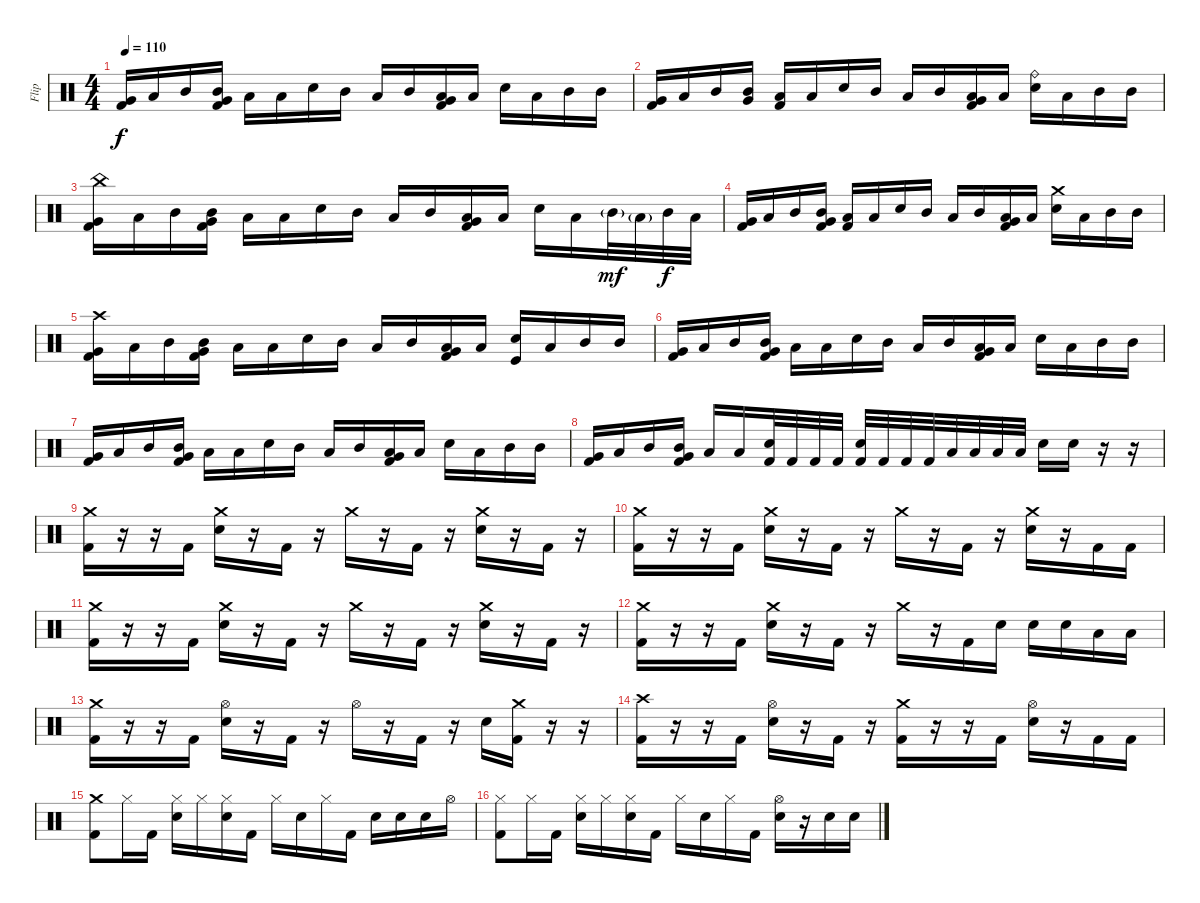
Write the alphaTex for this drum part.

\track ("Flip" "Flip") {instrument percussion}
\staff {score}
\articulation defaults
\ts (4 4)
\tempo 110
\clef neutral
\ks c
("Very Low Tom (hit)" "Kick (hit) 2").16{dy f} "Low Tom (hit)".16 "Mid Tom (hit)".16 ("Very Low Tom (hit)" "Mid Tom (hit)" "Kick (hit) 2").16 "Low Tom (hit)".16 "Low Tom (hit)".16 "Snare (hit) 2".16 "Mid Tom (hit)".16 "Low Tom (hit)".16 "Mid Tom (hit)".16 ("Very Low Tom (hit)" "Low Tom (hit)" "Kick (hit) 2").16 "Low Tom (hit)".16 "Snare (hit) 2".16 "Low Tom (hit)".16 "Mid Tom (hit)".16 "Mid Tom (hit)".16 |
("Very Low Tom (hit)" "Kick (hit) 2").16 "Low Tom (hit)".16 "Mid Tom (hit)".16 ("Very Low Tom (hit)" "Mid Tom (hit)").16 ("Low Tom (hit)" "Kick (hit) 2").16 "Low Tom (hit)".16 "Snare (hit) 2".16 "Mid Tom (hit)".16 "Low Tom (hit)".16 "Mid Tom (hit)".16 ("Very Low Tom (hit)" "Low Tom (hit)" "Kick (hit) 2").16 "Low Tom (hit)".16 ("Ride (bell)" "Snare (hit) 2").16 "Low Tom (hit)".16 "Mid Tom (hit)".16 "Mid Tom (hit)".16 |
("China (hit)" "Very Low Tom (hit)" "Kick (hit) 2").16 "Low Tom (hit)".16 "Mid Tom (hit)".16 ("Very Low Tom (hit)" "Mid Tom (hit)" "Kick (hit) 2").16 "Low Tom (hit)".16 "Low Tom (hit)".16 "Snare (hit) 2".16 "Mid Tom (hit)".16 "Low Tom (hit)".16 "Mid Tom (hit)".16 ("Very Low Tom (hit)" "Low Tom (hit)" "Kick (hit) 2").16 "Low Tom (hit)".16 "Snare (hit) 2".16 "Low Tom (hit)".16 "Mid Tom (hit)"{g}.32{dy mf} "Low Tom (hit)"{g}.32 "Mid Tom (hit)".32{dy f} "Low Tom (hit)".32 |
("Very Low Tom (hit)" "Kick (hit) 2").16 "Low Tom (hit)".16 "Mid Tom (hit)".16 ("Very Low Tom (hit)" "Mid Tom (hit)" "Kick (hit) 2").16 ("Low Tom (hit)" "Kick (hit) 2").16 "Low Tom (hit)".16 "Snare (hit) 2".16 "Mid Tom (hit)".16 "Low Tom (hit)".16 "Mid Tom (hit)".16 ("Very Low Tom (hit)" "Low Tom (hit)" "Kick (hit) 2").16 "Low Tom (hit)".16 ("Crash medium (hit)" "Snare (hit) 2").16 "Low Tom (hit)".16 "Mid Tom (hit)".16 "Mid Tom (hit)".16 |
("Crash high (hit)" "Very Low Tom (hit)" "Kick (hit) 2").16 "Low Tom (hit)".16 "Mid Tom (hit)".16 ("Very Low Tom (hit)" "Mid Tom (hit)" "Kick (hit) 2").16 "Low Tom (hit)".16 "Low Tom (hit)".16 "Snare (hit) 2".16 "Mid Tom (hit)".16 "Low Tom (hit)".16 "Mid Tom (hit)".16 ("Very Low Tom (hit)" "Low Tom (hit)" "Kick (hit) 2").16 "Low Tom (hit)".16 ("Snare (hit) 2" "Kick (hit)").16 "Low Tom (hit)".16 "Mid Tom (hit)".16 "Mid Tom (hit)".16 |
("Very Low Tom (hit)" "Kick (hit) 2").16 "Low Tom (hit)".16 "Mid Tom (hit)".16 ("Very Low Tom (hit)" "Mid Tom (hit)" "Kick (hit) 2").16 "Low Tom (hit)".16 "Low Tom (hit)".16 "Snare (hit) 2".16 "Mid Tom (hit)".16 "Low Tom (hit)".16 "Mid Tom (hit)".16 ("Very Low Tom (hit)" "Low Tom (hit)" "Kick (hit) 2").16 "Low Tom (hit)".16 "Snare (hit) 2".16 "Low Tom (hit)".16 "Mid Tom (hit)".16 "Mid Tom (hit)".16 |
("Very Low Tom (hit)" "Kick (hit) 2").16 "Low Tom (hit)".16 "Mid Tom (hit)".16 ("Very Low Tom (hit)" "Mid Tom (hit)" "Kick (hit) 2").16 "Low Tom (hit)".16 "Low Tom (hit)".16 "Snare (hit) 2".16 "Mid Tom (hit)".16 "Low Tom (hit)".16 "Mid Tom (hit)".16 ("Very Low Tom (hit)" "Low Tom (hit)" "Kick (hit) 2").16 "Low Tom (hit)".16 "Snare (hit) 2".16 "Low Tom (hit)".16 "Mid Tom (hit)".16 "Mid Tom (hit)".16 |
("Very Low Tom (hit)" "Kick (hit) 2").16 "Low Tom (hit)".16 "Mid Tom (hit)".16 ("Very Low Tom (hit)" "Mid Tom (hit)" "Kick (hit) 2").16 "Low Tom (hit)".16 "Low Tom (hit)".16 ("Snare (hit) 2" "Kick (hit) 2").32 "Kick (hit) 2".32 "Kick (hit) 2".32 "Kick (hit) 2".32 ("Snare (hit) 2" "Kick (hit) 2").32 "Kick (hit) 2".32 "Kick (hit) 2".32 "Kick (hit) 2".32 "Low Tom (hit)".32 "Low Tom (hit)".32 "Low Tom (hit)".32 "Low Tom (hit)".32 "Snare (hit) 2".16 "Snare (hit) 2".16 r.16 r.16 |
("Crash medium (hit)" "Kick (hit) 2").16 r.16 r.16 "Kick (hit) 2".16 ("Crash medium (hit)" "Snare (hit) 2").16 r.16 "Kick (hit) 2".16 r.16 "Crash medium (hit)".16 r.16 "Kick (hit) 2".16 r.16 ("Crash medium (hit)" "Snare (hit) 2").16 r.16 "Kick (hit) 2".16 r.16 |
("Crash medium (hit)" "Kick (hit) 2").16 r.16 r.16 "Kick (hit) 2".16 ("Crash medium (hit)" "Snare (hit) 2").16 r.16 "Kick (hit) 2".16 r.16 "Crash medium (hit)".16 r.16 "Kick (hit) 2".16 r.16 ("Crash medium (hit)" "Snare (hit) 2").16 r.16 "Kick (hit) 2".16 "Kick (hit) 2".16 |
("Crash medium (hit)" "Kick (hit) 2").16 r.16 r.16 "Kick (hit) 2".16 ("Crash medium (hit)" "Snare (hit) 2").16 r.16 "Kick (hit) 2".16 r.16 "Crash medium (hit)".16 r.16 "Kick (hit) 2".16 r.16 ("Crash medium (hit)" "Snare (hit) 2").16 r.16 "Kick (hit) 2".16 r.16 |
("Crash medium (hit)" "Kick (hit) 2").16 r.16 r.16 "Kick (hit) 2".16 ("Crash medium (hit)" "Snare (hit) 2").16 r.16 "Kick (hit) 2".16 r.16 "Crash medium (hit)".16 r.16 "Kick (hit) 2".16 "Snare (hit) 2".16 "Snare (hit) 2".16 "Snare (hit) 2".16 "Low Tom (hit)".16 "Low Tom (hit)".16 |
("Crash medium (hit)" "Kick (hit) 2").16 r.16 r.16 "Kick (hit) 2".16 ("Hi-Hat (open)" "Snare (hit) 2").16 r.16 "Kick (hit) 2".16 r.16 "Hi-Hat (open)".16 r.16 "Kick (hit) 2".16 r.16 "Snare (hit) 2".16 ("Crash medium (hit)" "Kick (hit) 2").16 r.16 r.16 |
("Crash high (hit)" "Kick (hit) 2").16 r.16 r.16 "Kick (hit) 2".16 ("Hi-Hat (open)" "Snare (hit) 2").16 r.16 "Kick (hit) 2".16 r.16 ("Crash medium (hit)" "Kick (hit) 2").16 r.16 r.16 "Kick (hit) 2".16 ("Hi-Hat (open)" "Snare (hit) 2").16 r.16 "Kick (hit) 2".16 "Kick (hit) 2".16 |
("Crash medium (hit)" "Kick (hit) 2").8 "Hi-Hat (closed)".16 "Kick (hit) 2".16 ("Hi-Hat (closed)" "Snare (hit) 2").16 "Hi-Hat (closed)".16 ("Hi-Hat (closed)" "Snare (hit) 2").16 "Kick (hit) 2".16 "Hi-Hat (closed)".16 "Snare (hit) 2".16 "Hi-Hat (closed)".16 "Kick (hit) 2".16 "Snare (hit) 2".16 "Snare (hit) 2".16 "Snare (hit) 2".16 "Hi-Hat (open)".16 |
("Hi-Hat (closed)" "Kick (hit) 2").8 "Hi-Hat (closed)".16 "Kick (hit) 2".16 ("Hi-Hat (closed)" "Snare (hit) 2").16 "Hi-Hat (closed)".16 ("Hi-Hat (closed)" "Snare (hit) 2").16 "Kick (hit) 2".16 "Hi-Hat (closed)".16 "Snare (hit) 2".16 "Hi-Hat (closed)".16 "Kick (hit) 2".16 ("Hi-Hat (open)" "Snare (hit) 2").16 r.16 "Snare (hit) 2".16 "Snare (hit) 2".16
